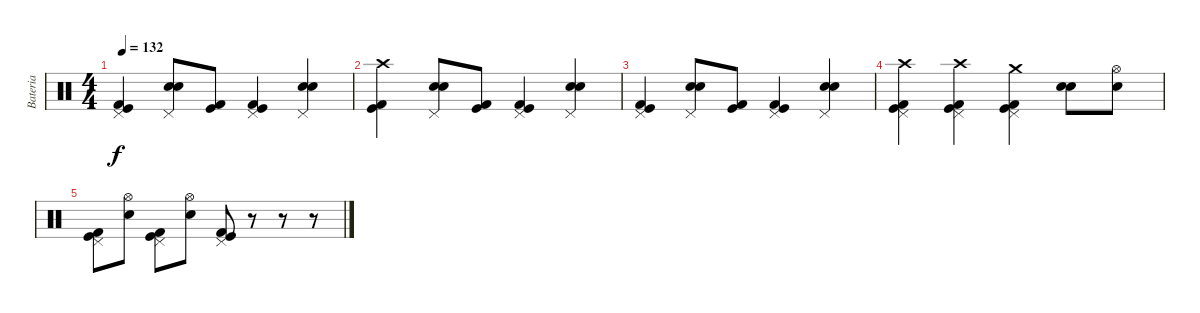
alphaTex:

\track ("Bateria" "Bateria") {instrument percussion}
\staff {score}
\articulation defaults
\ts (4 4)
\tempo 132
\clef neutral
\ks c
("Pedal Hi-Hat (hit)" "Kick (hit) 2" "Kick (hit)").4{dy f} ("Pedal Hi-Hat (hit)" "Snare (hit) 2" "Electric Snare (hit)").8 ("Kick (hit) 2" "Kick (hit)").8 ("Pedal Hi-Hat (hit)" "Kick (hit) 2" "Kick (hit)").4 ("Pedal Hi-Hat (hit)" "Snare (hit) 2" "Electric Snare (hit)").4 |
("Crash high (hit)" "Kick (hit) 2" "Kick (hit)").4 ("Pedal Hi-Hat (hit)" "Snare (hit) 2" "Electric Snare (hit)").8 ("Kick (hit) 2" "Kick (hit)").8 ("Pedal Hi-Hat (hit)" "Kick (hit) 2" "Kick (hit)").4 ("Pedal Hi-Hat (hit)" "Snare (hit) 2" "Electric Snare (hit)").4 |
("Pedal Hi-Hat (hit)" "Kick (hit) 2" "Kick (hit)").4 ("Pedal Hi-Hat (hit)" "Snare (hit) 2" "Electric Snare (hit)").8 ("Kick (hit) 2" "Kick (hit)").8 ("Pedal Hi-Hat (hit)" "Kick (hit) 2" "Kick (hit)").4 ("Pedal Hi-Hat (hit)" "Snare (hit) 2" "Electric Snare (hit)").4 |
("Pedal Hi-Hat (hit)" "Crash high (hit)" "Kick (hit) 2" "Kick (hit)").4{volume 16} ("Pedal Hi-Hat (hit)" "Crash high (hit)" "Kick (hit) 2" "Kick (hit)").4 ("Pedal Hi-Hat (hit)" "Crash medium (hit)" "Kick (hit)" "Kick (hit) 2").4 ("Electric Snare (hit)" "Snare (hit) 2").8 ("Hi-Hat (open)" "Electric Snare (hit)").8 |
("Pedal Hi-Hat (hit)" "Kick (hit)" "Kick (hit) 2").8 ("Hi-Hat (open)" "Electric Snare (hit)").8 ("Pedal Hi-Hat (hit)" "Kick (hit)" "Kick (hit) 2").8 ("Hi-Hat (open)" "Electric Snare (hit)").8 ("Pedal Hi-Hat (hit)" "Kick (hit) 2" "Kick (hit)").8 r.8 r.8 r.8
